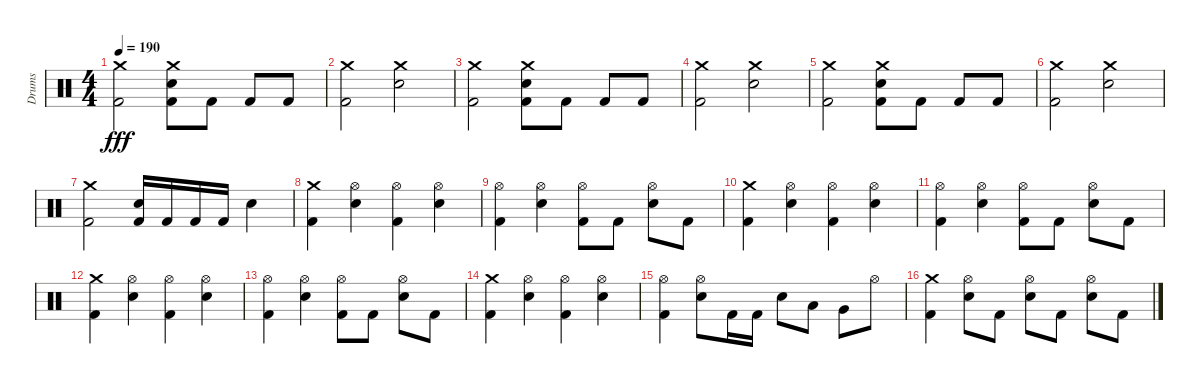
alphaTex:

\track ("Drums" "Drums") {instrument percussion}
\staff {score}
\articulation defaults
\ts (4 4)
\tempo 190
\clef neutral
\ks c
("Crash medium (hit)" "Kick (hit) 2").2{dy fff} ("Crash medium (hit)" "Kick (hit) 2" "Electric Snare (hit)").8 "Kick (hit) 2".8 "Kick (hit) 2".8 "Kick (hit) 2".8 |
("Kick (hit) 2" "Crash medium (hit)").2 ("Electric Snare (hit)" "Crash medium (hit)").2 |
("Crash medium (hit)" "Kick (hit) 2").2 ("Crash medium (hit)" "Kick (hit) 2" "Electric Snare (hit)").8 "Kick (hit) 2".8 "Kick (hit) 2".8 "Kick (hit) 2".8 |
("Kick (hit) 2" "Crash medium (hit)").2 ("Electric Snare (hit)" "Crash medium (hit)").2 |
("Crash medium (hit)" "Kick (hit) 2").2 ("Crash medium (hit)" "Kick (hit) 2" "Electric Snare (hit)").8 "Kick (hit) 2".8 "Kick (hit) 2".8 "Kick (hit) 2".8 |
("Kick (hit) 2" "Crash medium (hit)").2 ("Electric Snare (hit)" "Crash medium (hit)").2 |
("Kick (hit) 2" "Crash medium (hit)").2 ("Electric Snare (hit)" "Kick (hit) 2").16 "Kick (hit) 2".16 "Kick (hit) 2".16 "Kick (hit) 2".16 "Electric Snare (hit)".4 |
("Kick (hit) 2" "Crash medium (hit)").4 ("Electric Snare (hit)" "Hi-Hat (open)").4 ("Kick (hit) 2" "Hi-Hat (open)").4 ("Electric Snare (hit)" "Hi-Hat (open)").4 |
("Kick (hit) 2" "Hi-Hat (open)").4 ("Electric Snare (hit)" "Hi-Hat (open)").4 ("Kick (hit) 2" "Hi-Hat (open)").8 "Kick (hit) 2".8 ("Electric Snare (hit)" "Hi-Hat (open)").8 "Kick (hit) 2".8 |
("Kick (hit) 2" "Crash medium (hit)").4 ("Electric Snare (hit)" "Hi-Hat (open)").4 ("Kick (hit) 2" "Hi-Hat (open)").4 ("Electric Snare (hit)" "Hi-Hat (open)").4 |
("Kick (hit) 2" "Hi-Hat (open)").4 ("Electric Snare (hit)" "Hi-Hat (open)").4 ("Kick (hit) 2" "Hi-Hat (open)").8 "Kick (hit) 2".8 ("Electric Snare (hit)" "Hi-Hat (open)").8 "Kick (hit) 2".8 |
("Kick (hit) 2" "Crash medium (hit)").4 ("Electric Snare (hit)" "Hi-Hat (open)").4 ("Kick (hit) 2" "Hi-Hat (open)").4 ("Electric Snare (hit)" "Hi-Hat (open)").4 |
("Kick (hit) 2" "Hi-Hat (open)").4 ("Electric Snare (hit)" "Hi-Hat (open)").4 ("Kick (hit) 2" "Hi-Hat (open)").8 "Kick (hit) 2".8 ("Electric Snare (hit)" "Hi-Hat (open)").8 "Kick (hit) 2".8 |
("Kick (hit) 2" "Crash medium (hit)").4 ("Electric Snare (hit)" "Hi-Hat (open)").4 ("Kick (hit) 2" "Hi-Hat (open)").4 ("Electric Snare (hit)" "Hi-Hat (open)").4 |
("Kick (hit) 2" "Hi-Hat (open)").4 ("Electric Snare (hit)" "Hi-Hat (open)").8 "Kick (hit) 2".16 "Kick (hit) 2".16 "Electric Snare (hit)".8 "Low Tom (hit)".8 "Very Low Tom (hit)".8 "Hi-Hat (open)".8 |
("Crash medium (hit)" "Kick (hit) 2").4 ("Hi-Hat (open)" "Electric Snare (hit)").8 "Kick (hit) 2".8 ("Hi-Hat (open)" "Electric Snare (hit)").8 "Kick (hit) 2".8 ("Hi-Hat (open)" "Electric Snare (hit)").8 "Kick (hit) 2".8
